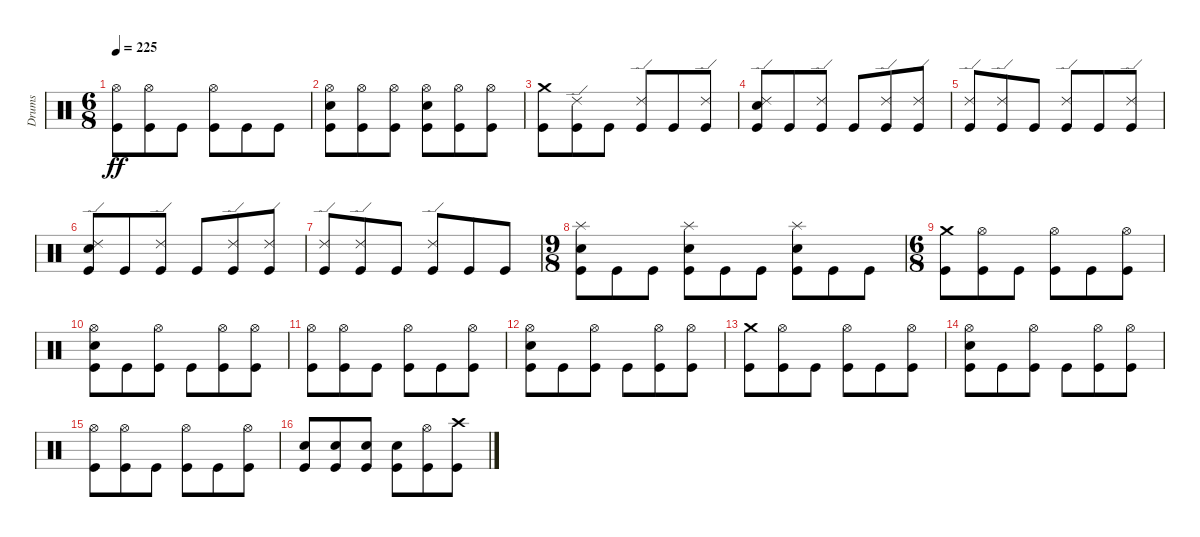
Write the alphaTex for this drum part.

\track ("Drums" "Drums") {instrument percussion}
\staff {score}
\articulation defaults
\ts (6 8)
\tempo 225
\clef neutral
\ks c
("Kick (hit)" "Hi-Hat (open)").8{dy ff} ("Kick (hit)" "Hi-Hat (open)").8 "Kick (hit)".8 ("Kick (hit)" "Hi-Hat (open)").8 "Kick (hit)".8 "Kick (hit)".8 |
("Kick (hit)" "Snare (hit) 2" "Hi-Hat (open)").8 ("Kick (hit)" "Hi-Hat (open)").8 ("Kick (hit)" "Hi-Hat (open)").8 ("Kick (hit)" "Snare (hit) 2" "Hi-Hat (open)").8 ("Kick (hit)" "Hi-Hat (open)").8 ("Kick (hit)" "Hi-Hat (open)").8 |
("Kick (hit)" "Crash medium (hit)").8 ("Kick (hit)" "Ride (edge) 2").8 "Kick (hit)".8 ("Kick (hit)" "Ride (edge) 2").8 "Kick (hit)".8 ("Kick (hit)" "Ride (edge) 2").8 |
("Kick (hit)" "Snare (hit) 2" "Ride (edge) 2").8 "Kick (hit)".8 ("Kick (hit)" "Ride (edge) 2").8 "Kick (hit)".8 ("Kick (hit)" "Ride (edge) 2").8 ("Kick (hit)" "Ride (edge) 2").8 |
("Kick (hit)" "Ride (edge) 2").8 ("Kick (hit)" "Ride (edge) 2").8 "Kick (hit)".8 ("Kick (hit)" "Ride (edge) 2").8 "Kick (hit)".8 ("Kick (hit)" "Ride (edge) 2").8 |
("Kick (hit)" "Snare (hit) 2" "Ride (edge) 2").8 "Kick (hit)".8 ("Kick (hit)" "Ride (edge) 2").8 "Kick (hit)".8 ("Kick (hit)" "Ride (edge) 2").8 ("Kick (hit)" "Ride (edge) 2").8 |
("Kick (hit)" "Ride (edge) 2").8 ("Kick (hit)" "Ride (edge) 2").8 "Kick (hit)".8 ("Kick (hit)" "Ride (edge) 2").8 "Kick (hit)".8 "Kick (hit)".8 |
\ts (9 8)
("Kick (hit)" "Snare (hit) 2" "Splash (hit)").8 "Kick (hit)".8 "Kick (hit)".8 ("Kick (hit)" "Snare (hit) 2" "Splash (hit)").8 "Kick (hit)".8 "Kick (hit)".8 ("Kick (hit)" "Snare (hit) 2" "Splash (hit)").8 "Kick (hit)".8 "Kick (hit)".8 |
\ts (6 8)
("Kick (hit)" "Crash medium (hit)").8 ("Kick (hit)" "Hi-Hat (open)").8 "Kick (hit)".8 ("Kick (hit)" "Hi-Hat (open)").8 "Kick (hit)".8 ("Kick (hit)" "Hi-Hat (open)").8 |
("Kick (hit)" "Snare (hit) 2" "Hi-Hat (open)").8 "Kick (hit)".8 ("Kick (hit)" "Hi-Hat (open)").8 "Kick (hit)".8 ("Kick (hit)" "Hi-Hat (open)").8 ("Kick (hit)" "Hi-Hat (open)").8 |
("Kick (hit)" "Hi-Hat (open)").8 ("Kick (hit)" "Hi-Hat (open)").8 "Kick (hit)".8 ("Kick (hit)" "Hi-Hat (open)").8 "Kick (hit)".8 ("Kick (hit)" "Hi-Hat (open)").8 |
("Kick (hit)" "Snare (hit) 2" "Hi-Hat (open)").8 "Kick (hit)".8 ("Kick (hit)" "Hi-Hat (open)").8 "Kick (hit)".8 ("Kick (hit)" "Hi-Hat (open)").8 ("Kick (hit)" "Hi-Hat (open)").8 |
("Kick (hit)" "Crash medium (hit)").8 ("Kick (hit)" "Hi-Hat (open)").8 "Kick (hit)".8 ("Kick (hit)" "Hi-Hat (open)").8 "Kick (hit)".8 ("Kick (hit)" "Hi-Hat (open)").8 |
("Kick (hit)" "Snare (hit) 2" "Hi-Hat (open)").8 "Kick (hit)".8 ("Kick (hit)" "Hi-Hat (open)").8 "Kick (hit)".8 ("Kick (hit)" "Hi-Hat (open)").8 ("Kick (hit)" "Hi-Hat (open)").8 |
("Kick (hit)" "Hi-Hat (open)").8 ("Kick (hit)" "Hi-Hat (open)").8 "Kick (hit)".8 ("Kick (hit)" "Hi-Hat (open)").8 "Kick (hit)".8 ("Kick (hit)" "Hi-Hat (open)").8 |
("Kick (hit)" "Snare (hit) 2").8 ("Kick (hit)" "Snare (hit) 2").8 ("Kick (hit)" "Snare (hit) 2").8 ("Kick (hit)" "Snare (hit) 2").8 ("Kick (hit)" "Hi-Hat (open)").8 ("Kick (hit)" "Crash high (hit)").8
